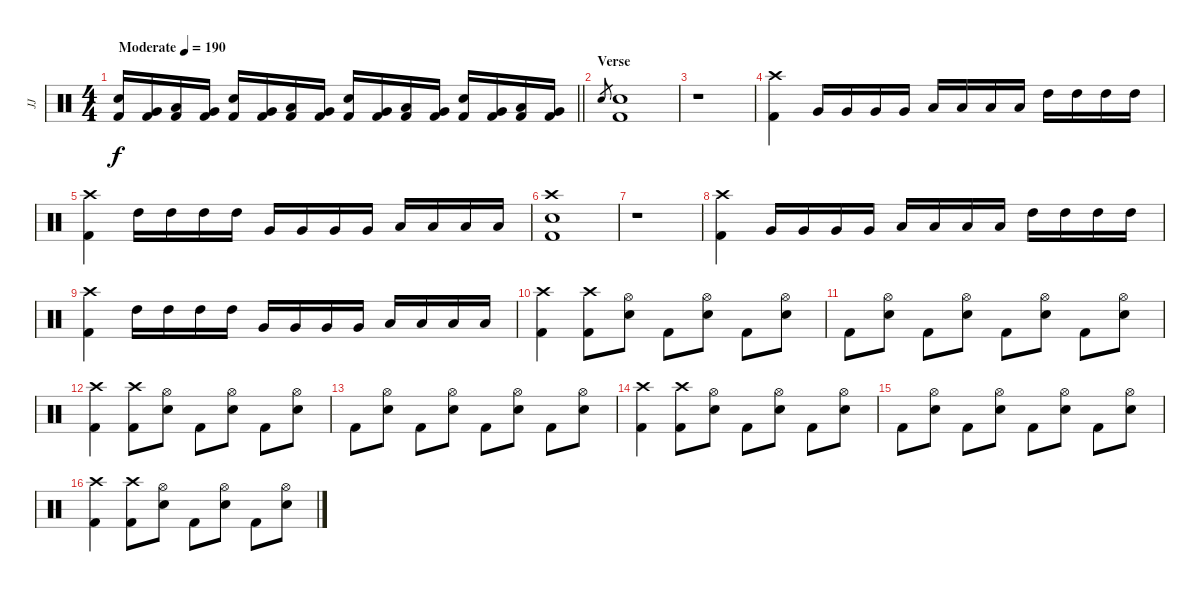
\track ("JJ" "JJ") {instrument percussion}
\staff {score}
\articulation defaults
\ts (4 4)
\tempo (190 "Moderate")
\clef neutral
\barLineRight lightlight
\ks c
("Electric Snare (hit)" "Kick (hit) 2").16{dy f} ("Very Low Tom (hit)" "Kick (hit) 2").16 ("Low Floor Tom (hit)" "Kick (hit) 2").16 ("Very Low Tom (hit)" "Kick (hit) 2").16 ("Electric Snare (hit)" "Kick (hit) 2").16 ("Very Low Tom (hit)" "Kick (hit) 2").16 ("Low Floor Tom (hit)" "Kick (hit) 2").16 ("Very Low Tom (hit)" "Kick (hit) 2").16 ("Electric Snare (hit)" "Kick (hit) 2").16 ("Very Low Tom (hit)" "Kick (hit) 2").16 ("Low Floor Tom (hit)" "Kick (hit) 2").16 ("Very Low Tom (hit)" "Kick (hit) 2").16 ("Electric Snare (hit)" "Kick (hit) 2").16 ("Very Low Tom (hit)" "Kick (hit) 2").16 ("Low Floor Tom (hit)" "Kick (hit) 2").16 ("Very Low Tom (hit)" "Kick (hit) 2").16 |
\section ("" "Verse")
"Electric Snare (hit)".8{gr} ("Electric Snare (hit)" "Kick (hit) 2").1 |
r.1 |
("Crash high (hit)" "Kick (hit) 2").4 "Very Low Tom (hit)".16 "Very Low Tom (hit)".16 "Very Low Tom (hit)".16 "Very Low Tom (hit)".16 "Low Floor Tom (hit)".16 "Low Floor Tom (hit)".16 "Low Floor Tom (hit)".16 "Low Floor Tom (hit)".16 "High Tom (hit)".16 "High Tom (hit)".16 "High Tom (hit)".16 "High Tom (hit)".16 |
("Crash high (hit)" "Kick (hit) 2").4 "High Tom (hit)".16 "High Tom (hit)".16 "High Tom (hit)".16 "High Tom (hit)".16 "Very Low Tom (hit)".16 "Very Low Tom (hit)".16 "Very Low Tom (hit)".16 "Very Low Tom (hit)".16 "Low Floor Tom (hit)".16 "Low Floor Tom (hit)".16 "Low Floor Tom (hit)".16 "Low Floor Tom (hit)".16 |
("Crash high (hit)" "Electric Snare (hit)" "Kick (hit) 2").1 |
r.1 |
("Crash high (hit)" "Kick (hit) 2").4 "Very Low Tom (hit)".16 "Very Low Tom (hit)".16 "Very Low Tom (hit)".16 "Very Low Tom (hit)".16 "Low Floor Tom (hit)".16 "Low Floor Tom (hit)".16 "Low Floor Tom (hit)".16 "Low Floor Tom (hit)".16 "High Tom (hit)".16 "High Tom (hit)".16 "High Tom (hit)".16 "High Tom (hit)".16 |
("Crash high (hit)" "Kick (hit) 2").4 "High Tom (hit)".16 "High Tom (hit)".16 "High Tom (hit)".16 "High Tom (hit)".16 "Very Low Tom (hit)".16 "Very Low Tom (hit)".16 "Very Low Tom (hit)".16 "Very Low Tom (hit)".16 "Low Floor Tom (hit)".16 "Low Floor Tom (hit)".16 "Low Floor Tom (hit)".16 "Low Floor Tom (hit)".16 |
("Crash high (hit)" "Kick (hit) 2").4 ("Crash high (hit)" "Kick (hit) 2").8 ("Hi-Hat (open)" "Electric Snare (hit)").8 "Kick (hit) 2".8 ("Hi-Hat (open)" "Electric Snare (hit)").8 "Kick (hit) 2".8 ("Hi-Hat (open)" "Electric Snare (hit)").8 |
"Kick (hit) 2".8 ("Hi-Hat (open)" "Electric Snare (hit)").8 "Kick (hit) 2".8 ("Hi-Hat (open)" "Electric Snare (hit)").8 "Kick (hit) 2".8 ("Hi-Hat (open)" "Electric Snare (hit)").8 "Kick (hit) 2".8 ("Hi-Hat (open)" "Electric Snare (hit)").8 |
("Crash high (hit)" "Kick (hit) 2").4 ("Crash high (hit)" "Kick (hit) 2").8 ("Hi-Hat (open)" "Electric Snare (hit)").8 "Kick (hit) 2".8 ("Hi-Hat (open)" "Electric Snare (hit)").8 "Kick (hit) 2".8 ("Hi-Hat (open)" "Electric Snare (hit)").8 |
"Kick (hit) 2".8 ("Hi-Hat (open)" "Electric Snare (hit)").8 "Kick (hit) 2".8 ("Hi-Hat (open)" "Electric Snare (hit)").8 "Kick (hit) 2".8 ("Hi-Hat (open)" "Electric Snare (hit)").8 "Kick (hit) 2".8 ("Hi-Hat (open)" "Electric Snare (hit)").8 |
("Crash high (hit)" "Kick (hit) 2").4 ("Crash high (hit)" "Kick (hit) 2").8 ("Hi-Hat (open)" "Electric Snare (hit)").8 "Kick (hit) 2".8 ("Hi-Hat (open)" "Electric Snare (hit)").8 "Kick (hit) 2".8 ("Hi-Hat (open)" "Electric Snare (hit)").8 |
"Kick (hit) 2".8 ("Hi-Hat (open)" "Electric Snare (hit)").8 "Kick (hit) 2".8 ("Hi-Hat (open)" "Electric Snare (hit)").8 "Kick (hit) 2".8 ("Hi-Hat (open)" "Electric Snare (hit)").8 "Kick (hit) 2".8 ("Hi-Hat (open)" "Electric Snare (hit)").8 |
("Crash high (hit)" "Kick (hit) 2").4 ("Crash high (hit)" "Kick (hit) 2").8 ("Hi-Hat (open)" "Electric Snare (hit)").8 "Kick (hit) 2".8 ("Hi-Hat (open)" "Electric Snare (hit)").8 "Kick (hit) 2".8 ("Hi-Hat (open)" "Electric Snare (hit)").8
